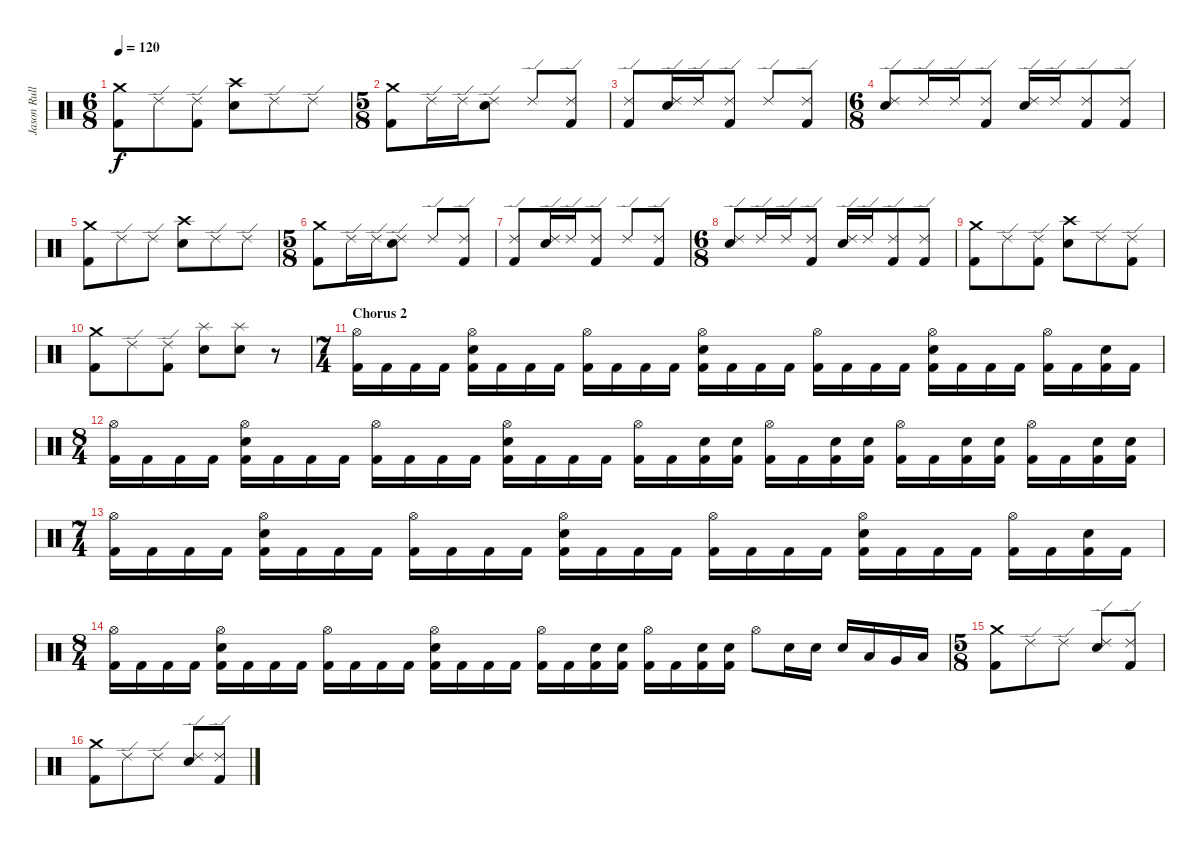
\track ("Jason Rullo" "Jason Rull") {instrument percussion}
\staff {score}
\articulation defaults
\ts (6 8)
\tempo 120
\clef neutral
\ks c
("Kick (hit) 2" "Crash medium (hit)").8{dy f} "Ride (edge) 2".8 ("Kick (hit) 2" "Ride (edge) 2").8 ("Electric Snare (hit)" "Crash high (hit)").8 "Ride (edge) 2".8 "Ride (edge) 2".8 |
\ts (5 8)
("Kick (hit) 2" "Crash medium (hit)").8 "Ride (edge) 2".16 "Ride (edge) 2".16 ("Electric Snare (hit)" "Ride (edge) 2").8 "Ride (edge) 2".8 ("Kick (hit) 2" "Ride (edge) 2").8 |
("Kick (hit) 2" "Ride (edge) 2").8 ("Electric Snare (hit)" "Ride (edge) 2").16 "Ride (edge) 2".16 ("Kick (hit) 2" "Ride (edge) 2").8 "Ride (edge) 2".8 ("Kick (hit) 2" "Ride (edge) 2").8 |
\ts (6 8)
("Electric Snare (hit)" "Ride (edge) 2").8 "Ride (edge) 2".16 "Ride (edge) 2".16 ("Kick (hit) 2" "Ride (edge) 2").8 ("Electric Snare (hit)" "Ride (edge) 2").16 "Ride (edge) 2".16 ("Kick (hit) 2" "Ride (edge) 2").8 ("Kick (hit) 2" "Ride (edge) 2").8 |
("Kick (hit) 2" "Crash medium (hit)").8 "Ride (edge) 2".8 "Ride (edge) 2".8 ("Electric Snare (hit)" "Crash high (hit)").8 "Ride (edge) 2".8 "Ride (edge) 2".8 |
\ts (5 8)
("Kick (hit) 2" "Crash medium (hit)").8 "Ride (edge) 2".16 "Ride (edge) 2".16 ("Electric Snare (hit)" "Ride (edge) 2").8 "Ride (edge) 2".8 ("Kick (hit) 2" "Ride (edge) 2").8 |
("Kick (hit) 2" "Ride (edge) 2").8 ("Electric Snare (hit)" "Ride (edge) 2").16 "Ride (edge) 2".16 ("Kick (hit) 2" "Ride (edge) 2").8 "Ride (edge) 2".8 ("Kick (hit) 2" "Ride (edge) 2").8 |
\ts (6 8)
("Electric Snare (hit)" "Ride (edge) 2").8 "Ride (edge) 2".16 "Ride (edge) 2".16 ("Kick (hit) 2" "Ride (edge) 2").8 ("Electric Snare (hit)" "Ride (edge) 2").16 "Ride (edge) 2".16 ("Kick (hit) 2" "Ride (edge) 2").8 ("Kick (hit) 2" "Ride (edge) 2").8 |
("Kick (hit) 2" "Crash medium (hit)").8 "Ride (edge) 2".8 ("Kick (hit) 2" "Ride (edge) 2").8 ("Electric Snare (hit)" "Crash high (hit)").8 "Ride (edge) 2".8 ("Kick (hit) 2" "Ride (edge) 2").8 |
("Kick (hit) 2" "Crash medium (hit)").8 "Ride (edge) 2".8 ("Kick (hit) 2" "Ride (edge) 2").8 ("Splash (hit)" "Electric Snare (hit)").8 ("Electric Snare (hit)" "Splash (hit)").8 r.8 |
\ts (7 4)
\section ("" "Chorus 2")
("Kick (hit) 2" "Hi-Hat (open)").16 "Kick (hit) 2".16 "Kick (hit) 2".16 "Kick (hit) 2".16 ("Kick (hit) 2" "Electric Snare (hit)" "Hi-Hat (open)").16 "Kick (hit) 2".16 "Kick (hit) 2".16 "Kick (hit) 2".16 ("Kick (hit) 2" "Hi-Hat (open)").16 "Kick (hit) 2".16 "Kick (hit) 2".16 "Kick (hit) 2".16 ("Kick (hit) 2" "Electric Snare (hit)" "Hi-Hat (open)").16 "Kick (hit) 2".16 "Kick (hit) 2".16 "Kick (hit) 2".16 ("Kick (hit) 2" "Hi-Hat (open)").16 "Kick (hit) 2".16 "Kick (hit) 2".16 "Kick (hit) 2".16 ("Kick (hit) 2" "Hi-Hat (open)" "Electric Snare (hit)").16 "Kick (hit) 2".16 "Kick (hit) 2".16 "Kick (hit) 2".16 ("Kick (hit) 2" "Hi-Hat (open)").16 "Kick (hit) 2".16 ("Kick (hit) 2" "Electric Snare (hit)").16 "Kick (hit) 2".16 |
\ts (8 4)
("Kick (hit) 2" "Hi-Hat (open)").16 "Kick (hit) 2".16 "Kick (hit) 2".16 "Kick (hit) 2".16 ("Kick (hit) 2" "Electric Snare (hit)" "Hi-Hat (open)").16 "Kick (hit) 2".16 "Kick (hit) 2".16 "Kick (hit) 2".16 ("Kick (hit) 2" "Hi-Hat (open)").16 "Kick (hit) 2".16 "Kick (hit) 2".16 "Kick (hit) 2".16 ("Kick (hit) 2" "Electric Snare (hit)" "Hi-Hat (open)").16 "Kick (hit) 2".16 "Kick (hit) 2".16 "Kick (hit) 2".16 ("Kick (hit) 2" "Hi-Hat (open)").16 "Kick (hit) 2".16 ("Electric Snare (hit)" "Kick (hit) 2").16 ("Electric Snare (hit)" "Kick (hit) 2").16 ("Kick (hit) 2" "Hi-Hat (open)").16 "Kick (hit) 2".16 ("Electric Snare (hit)" "Kick (hit) 2").16 ("Electric Snare (hit)" "Kick (hit) 2").16 ("Kick (hit) 2" "Hi-Hat (open)").16 "Kick (hit) 2".16 ("Kick (hit) 2" "Electric Snare (hit)").16 ("Electric Snare (hit)" "Kick (hit) 2").16 ("Hi-Hat (open)" "Kick (hit) 2").16 "Kick (hit) 2".16 ("Electric Snare (hit)" "Kick (hit) 2").16 ("Electric Snare (hit)" "Kick (hit) 2").16 |
\ts (7 4)
("Kick (hit) 2" "Hi-Hat (open)").16 "Kick (hit) 2".16 "Kick (hit) 2".16 "Kick (hit) 2".16 ("Kick (hit) 2" "Electric Snare (hit)" "Hi-Hat (open)").16 "Kick (hit) 2".16 "Kick (hit) 2".16 "Kick (hit) 2".16 ("Kick (hit) 2" "Hi-Hat (open)").16 "Kick (hit) 2".16 "Kick (hit) 2".16 "Kick (hit) 2".16 ("Kick (hit) 2" "Electric Snare (hit)" "Hi-Hat (open)").16 "Kick (hit) 2".16 "Kick (hit) 2".16 "Kick (hit) 2".16 ("Kick (hit) 2" "Hi-Hat (open)").16 "Kick (hit) 2".16 "Kick (hit) 2".16 "Kick (hit) 2".16 ("Kick (hit) 2" "Hi-Hat (open)" "Electric Snare (hit)").16 "Kick (hit) 2".16 "Kick (hit) 2".16 "Kick (hit) 2".16 ("Kick (hit) 2" "Hi-Hat (open)").16 "Kick (hit) 2".16 ("Kick (hit) 2" "Electric Snare (hit)").16 "Kick (hit) 2".16 |
\ts (8 4)
("Kick (hit) 2" "Hi-Hat (open)").16 "Kick (hit) 2".16 "Kick (hit) 2".16 "Kick (hit) 2".16 ("Kick (hit) 2" "Electric Snare (hit)" "Hi-Hat (open)").16 "Kick (hit) 2".16 "Kick (hit) 2".16 "Kick (hit) 2".16 ("Kick (hit) 2" "Hi-Hat (open)").16 "Kick (hit) 2".16 "Kick (hit) 2".16 "Kick (hit) 2".16 ("Kick (hit) 2" "Electric Snare (hit)" "Hi-Hat (open)").16 "Kick (hit) 2".16 "Kick (hit) 2".16 "Kick (hit) 2".16 ("Kick (hit) 2" "Hi-Hat (open)").16 "Kick (hit) 2".16 ("Electric Snare (hit)" "Kick (hit) 2").16 ("Electric Snare (hit)" "Kick (hit) 2").16 ("Kick (hit) 2" "Hi-Hat (open)").16 "Kick (hit) 2".16 ("Electric Snare (hit)" "Kick (hit) 2").16 ("Electric Snare (hit)" "Kick (hit) 2").16 "Hi-Hat (open)".8 "Electric Snare (hit)".16 "Electric Snare (hit)".16 "Electric Snare (hit)".16 "Low Tom (hit)".16 "Very Low Tom (hit)".16 "Low Floor Tom (hit)".16 |
\ts (5 8)
("Crash medium (hit)" "Kick (hit) 2").8 "Ride (edge) 2".8 "Ride (edge) 2".8 ("Ride (edge) 2" "Electric Snare (hit)").8 ("Ride (edge) 2" "Kick (hit) 2").8 |
("Crash medium (hit)" "Kick (hit) 2").8 "Ride (edge) 2".8 "Ride (edge) 2".8 ("Ride (edge) 2" "Electric Snare (hit)").8 ("Ride (edge) 2" "Kick (hit) 2").8
